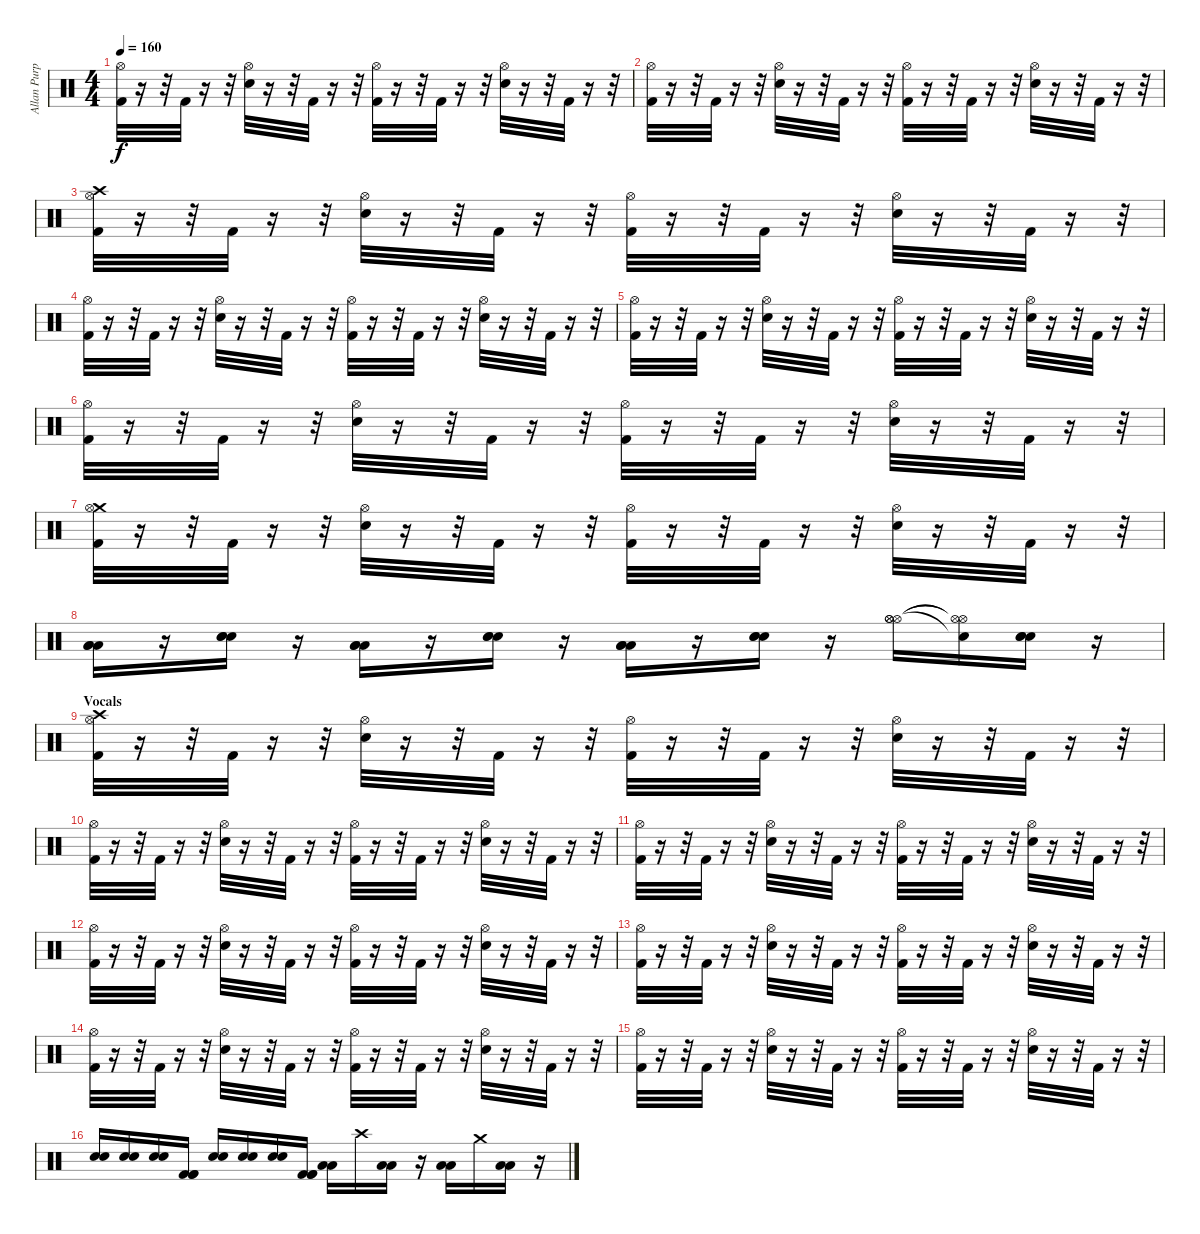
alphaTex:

\track ("Allan Purple" "Allan Purp") {instrument percussion}
\staff {score}
\articulation defaults
\ts (4 4)
\tempo 160
\clef neutral
\ks c
("Hi-Hat (open)" "Kick (hit) 2").32{dy f} r.16 r.32 "Kick (hit) 2".32 r.16 r.32 ("Hi-Hat (open)" "Electric Snare (hit)").32 r.16 r.32 "Kick (hit) 2".32 r.16 r.32 ("Hi-Hat (open)" "Kick (hit) 2").32 r.16 r.32 "Kick (hit) 2".32 r.16 r.32 ("Hi-Hat (open)" "Electric Snare (hit)").32 r.16 r.32 "Kick (hit) 2".32 r.16 r.32 |
("Hi-Hat (open)" "Kick (hit) 2").32 r.16 r.32 "Kick (hit) 2".32 r.16 r.32 ("Hi-Hat (open)" "Electric Snare (hit)").32 r.16 r.32 "Kick (hit) 2".32 r.16 r.32 ("Hi-Hat (open)" "Kick (hit) 2").32 r.16 r.32 "Kick (hit) 2".32 r.16 r.32 ("Hi-Hat (open)" "Electric Snare (hit)").32 r.16 r.32 "Kick (hit) 2".32 r.16 r.32 |
("Crash high (hit)" "Hi-Hat (open)" "Kick (hit) 2").32 r.16 r.32 "Kick (hit) 2".32 r.16 r.32 ("Hi-Hat (open)" "Electric Snare (hit)").32 r.16 r.32 "Kick (hit) 2".32 r.16 r.32 ("Hi-Hat (open)" "Kick (hit) 2").32 r.16 r.32 "Kick (hit) 2".32 r.16 r.32 ("Hi-Hat (open)" "Electric Snare (hit)").32 r.16 r.32 "Kick (hit) 2".32 r.16 r.32 |
("Hi-Hat (open)" "Kick (hit) 2").32 r.16 r.32 "Kick (hit) 2".32 r.16 r.32 ("Hi-Hat (open)" "Electric Snare (hit)").32 r.16 r.32 "Kick (hit) 2".32 r.16 r.32 ("Hi-Hat (open)" "Kick (hit) 2").32 r.16 r.32 "Kick (hit) 2".32 r.16 r.32 ("Hi-Hat (open)" "Electric Snare (hit)").32 r.16 r.32 "Kick (hit) 2".32 r.16 r.32 |
("Hi-Hat (open)" "Kick (hit) 2").32 r.16 r.32 "Kick (hit) 2".32 r.16 r.32 ("Hi-Hat (open)" "Electric Snare (hit)").32 r.16 r.32 "Kick (hit) 2".32 r.16 r.32 ("Hi-Hat (open)" "Kick (hit) 2").32 r.16 r.32 "Kick (hit) 2".32 r.16 r.32 ("Hi-Hat (open)" "Electric Snare (hit)").32 r.16 r.32 "Kick (hit) 2".32 r.16 r.32 |
("Hi-Hat (open)" "Kick (hit) 2").32 r.16 r.32 "Kick (hit) 2".32 r.16 r.32 ("Hi-Hat (open)" "Electric Snare (hit)").32 r.16 r.32 "Kick (hit) 2".32 r.16 r.32 ("Hi-Hat (open)" "Kick (hit) 2").32 r.16 r.32 "Kick (hit) 2".32 r.16 r.32 ("Hi-Hat (open)" "Electric Snare (hit)").32 r.16 r.32 "Kick (hit) 2".32 r.16 r.32 |
("Crash medium (hit)" "Hi-Hat (open)" "Kick (hit) 2").32 r.16 r.32 "Kick (hit) 2".32 r.16 r.32 ("Hi-Hat (open)" "Electric Snare (hit)").32 r.16 r.32 "Kick (hit) 2".32 r.16 r.32 ("Hi-Hat (open)" "Kick (hit) 2").32 r.16 r.32 "Kick (hit) 2".32 r.16 r.32 ("Hi-Hat (open)" "Electric Snare (hit)").32 r.16 r.32 "Kick (hit) 2".32 r.16 r.32 |
("Low Tom (hit)" "Low Tom (hit)" "Low Tom (hit)").16 r.16 ("Electric Snare (hit)" "Electric Snare (hit)" "Electric Snare (hit)").16 r.16 ("Low Tom (hit)" "Low Tom (hit)" "Low Tom (hit)").16 r.16 ("Electric Snare (hit)" "Electric Snare (hit)" "Electric Snare (hit)").16 r.16 ("Low Tom (hit)" "Low Tom (hit)" "Low Tom (hit)").16 r.16 ("Electric Snare (hit)" "Electric Snare (hit)" "Electric Snare (hit)").16 r.16 ("Hi-Hat (open)" "Hi-Hat (open)" "Hi-Hat (open)").16 ("Snare (hit)"{t} "Hi-Hat (open)"{t} "Hi-Hat (open)"{t}).16 ("Electric Snare (hit)" "Electric Snare (hit)" "Electric Snare (hit)").16 r.16 |
\section ("" "Vocals")
("Crash high (hit)" "Hi-Hat (open)" "Kick (hit) 2").32 r.16 r.32 "Kick (hit) 2".32 r.16 r.32 ("Hi-Hat (open)" "Electric Snare (hit)").32 r.16 r.32 "Kick (hit) 2".32 r.16 r.32 ("Hi-Hat (open)" "Kick (hit) 2").32 r.16 r.32 "Kick (hit) 2".32 r.16 r.32 ("Hi-Hat (open)" "Electric Snare (hit)").32 r.16 r.32 "Kick (hit) 2".32 r.16 r.32 |
("Hi-Hat (open)" "Kick (hit) 2").32 r.16 r.32 "Kick (hit) 2".32 r.16 r.32 ("Hi-Hat (open)" "Electric Snare (hit)").32 r.16 r.32 "Kick (hit) 2".32 r.16 r.32 ("Hi-Hat (open)" "Kick (hit) 2").32 r.16 r.32 "Kick (hit) 2".32 r.16 r.32 ("Hi-Hat (open)" "Electric Snare (hit)").32 r.16 r.32 "Kick (hit) 2".32 r.16 r.32 |
("Hi-Hat (open)" "Kick (hit) 2").32 r.16 r.32 "Kick (hit) 2".32 r.16 r.32 ("Hi-Hat (open)" "Electric Snare (hit)").32 r.16 r.32 "Kick (hit) 2".32 r.16 r.32 ("Hi-Hat (open)" "Kick (hit) 2").32 r.16 r.32 "Kick (hit) 2".32 r.16 r.32 ("Hi-Hat (open)" "Electric Snare (hit)").32 r.16 r.32 "Kick (hit) 2".32 r.16 r.32 |
("Hi-Hat (open)" "Kick (hit) 2").32 r.16 r.32 "Kick (hit) 2".32 r.16 r.32 ("Hi-Hat (open)" "Electric Snare (hit)").32 r.16 r.32 "Kick (hit) 2".32 r.16 r.32 ("Hi-Hat (open)" "Kick (hit) 2").32 r.16 r.32 "Kick (hit) 2".32 r.16 r.32 ("Hi-Hat (open)" "Electric Snare (hit)").32 r.16 r.32 "Kick (hit) 2".32 r.16 r.32 |
("Hi-Hat (open)" "Kick (hit) 2").32 r.16 r.32 "Kick (hit) 2".32 r.16 r.32 ("Hi-Hat (open)" "Electric Snare (hit)").32 r.16 r.32 "Kick (hit) 2".32 r.16 r.32 ("Hi-Hat (open)" "Kick (hit) 2").32 r.16 r.32 "Kick (hit) 2".32 r.16 r.32 ("Hi-Hat (open)" "Electric Snare (hit)").32 r.16 r.32 "Kick (hit) 2".32 r.16 r.32 |
("Hi-Hat (open)" "Kick (hit) 2").32 r.16 r.32 "Kick (hit) 2".32 r.16 r.32 ("Hi-Hat (open)" "Electric Snare (hit)").32 r.16 r.32 "Kick (hit) 2".32 r.16 r.32 ("Hi-Hat (open)" "Kick (hit) 2").32 r.16 r.32 "Kick (hit) 2".32 r.16 r.32 ("Hi-Hat (open)" "Electric Snare (hit)").32 r.16 r.32 "Kick (hit) 2".32 r.16 r.32 |
("Hi-Hat (open)" "Kick (hit) 2").32 r.16 r.32 "Kick (hit) 2".32 r.16 r.32 ("Hi-Hat (open)" "Electric Snare (hit)").32 r.16 r.32 "Kick (hit) 2".32 r.16 r.32 ("Hi-Hat (open)" "Kick (hit) 2").32 r.16 r.32 "Kick (hit) 2".32 r.16 r.32 ("Hi-Hat (open)" "Electric Snare (hit)").32 r.16 r.32 "Kick (hit) 2".32 r.16 r.32 |
("Electric Snare (hit)" "Electric Snare (hit)").16 ("Electric Snare (hit)" "Electric Snare (hit)").16 ("Electric Snare (hit)" "Electric Snare (hit)").16 ("Kick (hit) 2" "Kick (hit) 2" "Kick (hit) 2").16 ("Electric Snare (hit)" "Electric Snare (hit)").16 ("Electric Snare (hit)" "Electric Snare (hit)").16 ("Electric Snare (hit)" "Electric Snare (hit)").16 ("Kick (hit) 2" "Kick (hit) 2" "Kick (hit) 2").16 ("Low Tom (hit)" "Low Tom (hit)").16 "Crash high (hit)".16 ("Low Tom (hit)" "Low Tom (hit)").16 r.16 ("Low Tom (hit)" "Low Tom (hit)").16 "Crash medium (hit)".16 ("Low Tom (hit)" "Low Tom (hit)").16 r.16
